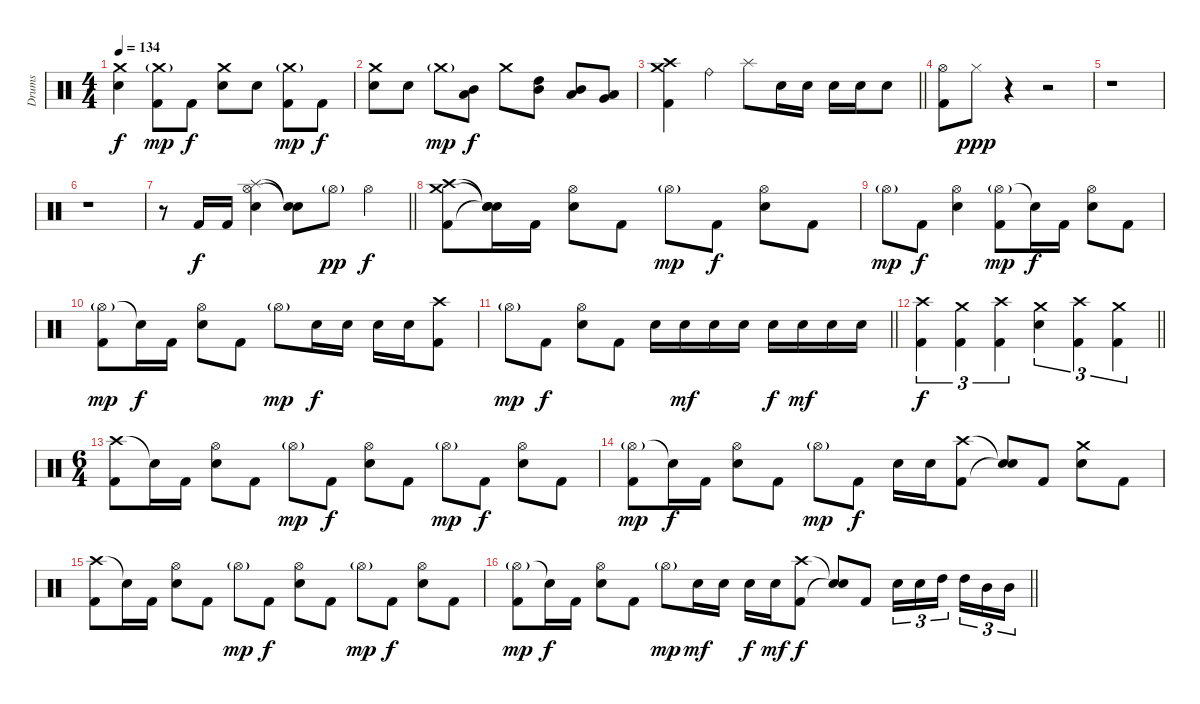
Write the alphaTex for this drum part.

\track ("Drums" "Drums") {instrument percussion}
\staff {score}
\articulation defaults
\ts (4 4)
\tempo 134
\clef neutral
\ks c
("Crash medium (hit)" "Electric Snare (hit)").4{dy f} ("Crash medium (hit)"{g} "Kick (hit) 2").8{dy mp} "Kick (hit) 2".8{dy f} ("Crash medium (hit)" "Electric Snare (hit)").8 "Electric Snare (hit)".8 ("Crash medium (hit)"{g} "Kick (hit) 2").8{dy mp} "Kick (hit) 2".8{dy f} |
("Crash medium (hit)" "Electric Snare (hit)").8 "Electric Snare (hit)".8 "Crash medium (hit)"{g}.8{dy mp} ("Mid Tom (hit)" "Low Tom (hit)").8{dy f} "Crash medium (hit)".8 ("High Tom (hit)" "Mid Tom (hit)").8 ("Mid Tom (hit)" "Low Tom (hit)").8 ("Low Tom (hit)" "Very Low Tom (hit)").8 |
\barLineRight lightlight
("Crash high (hit)" "Crash medium (hit)" "Kick (hit) 2").4 "Ride (bell)".4 "Splash (hit)".8 "Electric Snare (hit)".16 "Electric Snare (hit)".16 "Electric Snare (hit)".16 "Electric Snare (hit)".16 "Electric Snare (hit)".8 |
("Hi-Hat (open)" "Kick (hit) 2").8 "Hi-Hat (closed)".8{dy ppp} r.4 r.2 |
r.1 |
r.1 |
\barLineRight lightlight
r.8 "Kick (hit) 2".16{dy f} "Kick (hit) 2".16 ("Splash (hit)" "Hi-Hat (open)" "Electric Snare (hit)").4 ("Snare (hit)"{t} "Snare (hit)"{t}).8 "Hi-Hat (open)"{g}.8{dy pp} "Hi-Hat (open)".4{dy f} |
("Crash high (hit)" "Crash medium (hit)" "Kick (hit) 2").8 ("Snare (hit)"{t} "Snare (hit)"{t} "Snare (hit)"{t}).16 "Kick (hit) 2".16 ("Hi-Hat (open)" "Electric Snare (hit)").8 "Kick (hit) 2".8 "Hi-Hat (open)"{g}.8{dy mp} "Kick (hit) 2".8{dy f} ("Hi-Hat (open)" "Electric Snare (hit)").8 "Kick (hit) 2".8 |
"Hi-Hat (open)"{g}.8{dy mp} "Kick (hit) 2".8{dy f} ("Hi-Hat (open)" "Electric Snare (hit)").4 ("Hi-Hat (open)"{g} "Kick (hit) 2").8{dy mp} "Snare (hit)"{t}.16{dy f} "Kick (hit) 2".16 ("Hi-Hat (open)" "Electric Snare (hit)").8 "Kick (hit) 2".8 |
("Hi-Hat (open)"{g} "Kick (hit) 2").8{dy mp} "Snare (hit)"{t}.16{dy f} "Kick (hit) 2".16 ("Hi-Hat (open)" "Electric Snare (hit)").8 "Kick (hit) 2".8 "Hi-Hat (open)"{g}.8{dy mp} "Electric Snare (hit)".16{dy f} "Electric Snare (hit)".16 "Electric Snare (hit)".16 "Electric Snare (hit)".16 ("Crash high (hit)" "Kick (hit) 2").8 |
\barLineRight lightlight "Hi-Hat (open)"{g}.8{dy mp} "Kick (hit) 2".8{dy f}
("Hi-Hat (open)" "Electric Snare (hit)").8 "Kick (hit) 2".8 "Electric Snare (hit)".16 "Electric Snare (hit)".16{dy mf} "Electric Snare (hit)".16 "Electric Snare (hit)".16 "Electric Snare (hit)".16{dy f} "Electric Snare (hit)".16{dy mf} "Electric Snare (hit)".16 "Electric Snare (hit)".16 |
\barLineRight lightlight
("Crash high (hit)" "Kick (hit) 2").4{tu (3 2) dy f} ("Crash medium (hit)" "Kick (hit) 2").4{tu (3 2)} ("Crash high (hit)" "Kick (hit) 2").4{tu (3 2)} ("Crash medium (hit)" "Electric Snare (hit)").4{tu (3 2)} ("Crash high (hit)" "Kick (hit) 2").4{tu (3 2)} ("Crash medium (hit)" "Kick (hit) 2").4{tu (3 2)} |
\ts (6 4)
("Crash high (hit)" "Kick (hit) 2").8 "Snare (hit)"{t}.16 "Kick (hit) 2".16 ("Hi-Hat (open)" "Electric Snare (hit)").8 "Kick (hit) 2".8 "Hi-Hat (open)"{g}.8{dy mp} "Kick (hit) 2".8{dy f} ("Hi-Hat (open)" "Electric Snare (hit)").8 "Kick (hit) 2".8 "Hi-Hat (open)"{g}.8{dy mp} "Kick (hit) 2".8{dy f} ("Hi-Hat (open)" "Electric Snare (hit)").8 "Kick (hit) 2".8 |
("Hi-Hat (open)"{g} "Kick (hit) 2").8{dy mp} "Snare (hit)"{t}.16{dy f} "Kick (hit) 2".16 ("Hi-Hat (open)" "Electric Snare (hit)").8 "Kick (hit) 2".8 "Hi-Hat (open)"{g}.8{dy mp} "Kick (hit) 2".8{dy f} "Electric Snare (hit)".16 "Electric Snare (hit)".16 ("Crash high (hit)" "Kick (hit) 2").8 ("Snare (hit)"{t} "Snare (hit)"{t}).8 "Kick (hit) 2".8 ("Crash medium (hit)" "Electric Snare (hit)").8 "Kick (hit) 2".8 |
("Crash high (hit)" "Kick (hit) 2").8 "Snare (hit)"{t}.16 "Kick (hit) 2".16 ("Hi-Hat (open)" "Electric Snare (hit)").8 "Kick (hit) 2".8 "Hi-Hat (open)"{g}.8{dy mp} "Kick (hit) 2".8{dy f} ("Hi-Hat (open)" "Electric Snare (hit)").8 "Kick (hit) 2".8 "Hi-Hat (open)"{g}.8{dy mp} "Kick (hit) 2".8{dy f} ("Hi-Hat (open)" "Electric Snare (hit)").8 "Kick (hit) 2".8 |
\barLineRight lightlight
("Hi-Hat (open)"{g} "Kick (hit) 2").8{dy mp} "Snare (hit)"{t}.16{dy f} "Kick (hit) 2".16 ("Hi-Hat (open)" "Electric Snare (hit)").8 "Kick (hit) 2".8 "Hi-Hat (open)"{g}.8{dy mp} "Electric Snare (hit)".16{dy mf} "Electric Snare (hit)".16 "Electric Snare (hit)".16{dy f} "Electric Snare (hit)".16{dy mf} ("Crash high (hit)" "Kick (hit) 2").8{dy f} ("Snare (hit)"{t} "Snare (hit)"{t}).8 "Kick (hit) 2".8 "Electric Snare (hit)".16{tu (3 2)} "Electric Snare (hit)".16{tu (3 2)} "High Tom (hit)".16{tu (3 2)} "High Tom (hit)".16{tu (3 2)} "Mid Tom (hit)".16{tu (3 2)} "Mid Tom (hit)".16{tu (3 2)}
